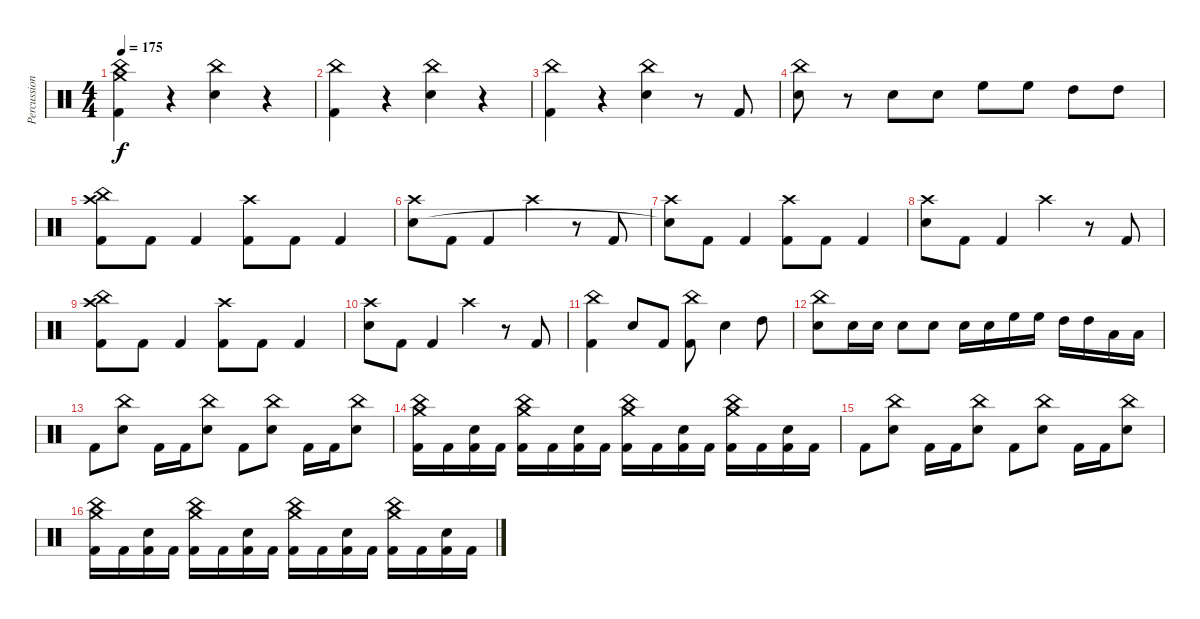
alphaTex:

\track ("Percussion" "Percussion") {instrument percussion}
\staff {score}
\articulation defaults
\ts (4 4)
\tempo 175
\clef neutral
\ks c
("China (hit)" "Crash medium (hit)" "Kick (hit) 2").4{dy f} r.4 ("China (hit)" "Electric Snare (hit)").4 r.4 |
("China (hit)" "Kick (hit) 2").4 r.4 ("China (hit)" "Electric Snare (hit)").4 r.4 |
("China (hit)" "Kick (hit) 2").4 r.4 ("China (hit)" "Electric Snare (hit)").4 r.8 "Kick (hit) 2".8 |
("China (hit)" "Electric Snare (hit)").8 r.8 "Electric Snare (hit)".8 "Electric Snare (hit)".8 "High Floor Tom (hit)".8 "High Floor Tom (hit)".8 "High Tom (hit)".8 "High Tom (hit)".8 |
("Crash high (hit)" "China (hit)" "Kick (hit) 2").8 "Kick (hit) 2".8 "Kick (hit) 2".4 ("Crash high (hit)" "Kick (hit) 2").8 "Kick (hit) 2".8 "Kick (hit) 2".4 |
("Crash high (hit)" "Electric Snare (hit)").8 "Kick (hit) 2".8 "Kick (hit) 2".4 "Crash high (hit)".4 r.8 "Kick (hit) 2".8 |
("Crash high (hit)" "Snare (hit)"{t}).8 "Kick (hit) 2".8 "Kick (hit) 2".4 ("Crash high (hit)" "Kick (hit) 2").8 "Kick (hit) 2".8 "Kick (hit) 2".4 |
("Crash high (hit)" "Electric Snare (hit)").8 "Kick (hit) 2".8 "Kick (hit) 2".4 "Crash high (hit)".4 r.8 "Kick (hit) 2".8 |
("Crash high (hit)" "China (hit)" "Kick (hit) 2").8 "Kick (hit) 2".8 "Kick (hit) 2".4 ("Crash high (hit)" "Kick (hit) 2").8 "Kick (hit) 2".8 "Kick (hit) 2".4 |
("Crash high (hit)" "Electric Snare (hit)").8 "Kick (hit) 2".8 "Kick (hit) 2".4 "Crash high (hit)".4 r.8 "Kick (hit) 2".8 |
("China (hit)" "Kick (hit) 2").4 "Electric Snare (hit)".8 "Kick (hit) 2".8 ("China (hit)" "Kick (hit) 2").8 "Electric Snare (hit)".4 "High Tom (hit)".8 |
("China (hit)" "Electric Snare (hit)").8 "Electric Snare (hit)".16 "Electric Snare (hit)".16 "Electric Snare (hit)".8 "Electric Snare (hit)".8 "Electric Snare (hit)".16 "Electric Snare (hit)".16 "High Floor Tom (hit)".16 "High Floor Tom (hit)".16 "High Tom (hit)".16 "High Tom (hit)".16 "Low Floor Tom (hit)".16 "Low Floor Tom (hit)".16 |
"Kick (hit) 2".8 ("China (hit)" "Electric Snare (hit)").8 "Kick (hit) 2".16 "Kick (hit) 2".16 ("China (hit)" "Electric Snare (hit)").8 "Kick (hit) 2".8 ("China (hit)" "Electric Snare (hit)").8 "Kick (hit) 2".16 "Kick (hit) 2".16 ("China (hit)" "Electric Snare (hit)").8 |
("Crash medium (hit)" "China (hit)" "Kick (hit) 2").16 "Kick (hit) 2".16 ("Electric Snare (hit)" "Kick (hit) 2").16 "Kick (hit) 2".16 ("Crash medium (hit)" "China (hit)" "Kick (hit) 2").16 "Kick (hit) 2".16 ("Electric Snare (hit)" "Kick (hit) 2").16 "Kick (hit) 2".16 ("Crash medium (hit)" "China (hit)" "Kick (hit) 2").16 "Kick (hit) 2".16 ("Electric Snare (hit)" "Kick (hit) 2").16 "Kick (hit) 2".16 ("Crash medium (hit)" "China (hit)" "Kick (hit) 2").16 "Kick (hit) 2".16 ("Electric Snare (hit)" "Kick (hit) 2").16 "Kick (hit) 2".16 |
"Kick (hit) 2".8 ("China (hit)" "Electric Snare (hit)").8 "Kick (hit) 2".16 "Kick (hit) 2".16 ("China (hit)" "Electric Snare (hit)").8 "Kick (hit) 2".8 ("China (hit)" "Electric Snare (hit)").8 "Kick (hit) 2".16 "Kick (hit) 2".16 ("China (hit)" "Electric Snare (hit)").8 |
("Crash medium (hit)" "China (hit)" "Kick (hit) 2").16 "Kick (hit) 2".16 ("Electric Snare (hit)" "Kick (hit) 2").16 "Kick (hit) 2".16 ("Crash medium (hit)" "China (hit)" "Kick (hit) 2").16 "Kick (hit) 2".16 ("Electric Snare (hit)" "Kick (hit) 2").16 "Kick (hit) 2".16 ("Crash medium (hit)" "China (hit)" "Kick (hit) 2").16 "Kick (hit) 2".16 ("Electric Snare (hit)" "Kick (hit) 2").16 "Kick (hit) 2".16 ("Crash medium (hit)" "China (hit)" "Kick (hit) 2").16 "Kick (hit) 2".16 ("Electric Snare (hit)" "Kick (hit) 2").16 "Kick (hit) 2".16
